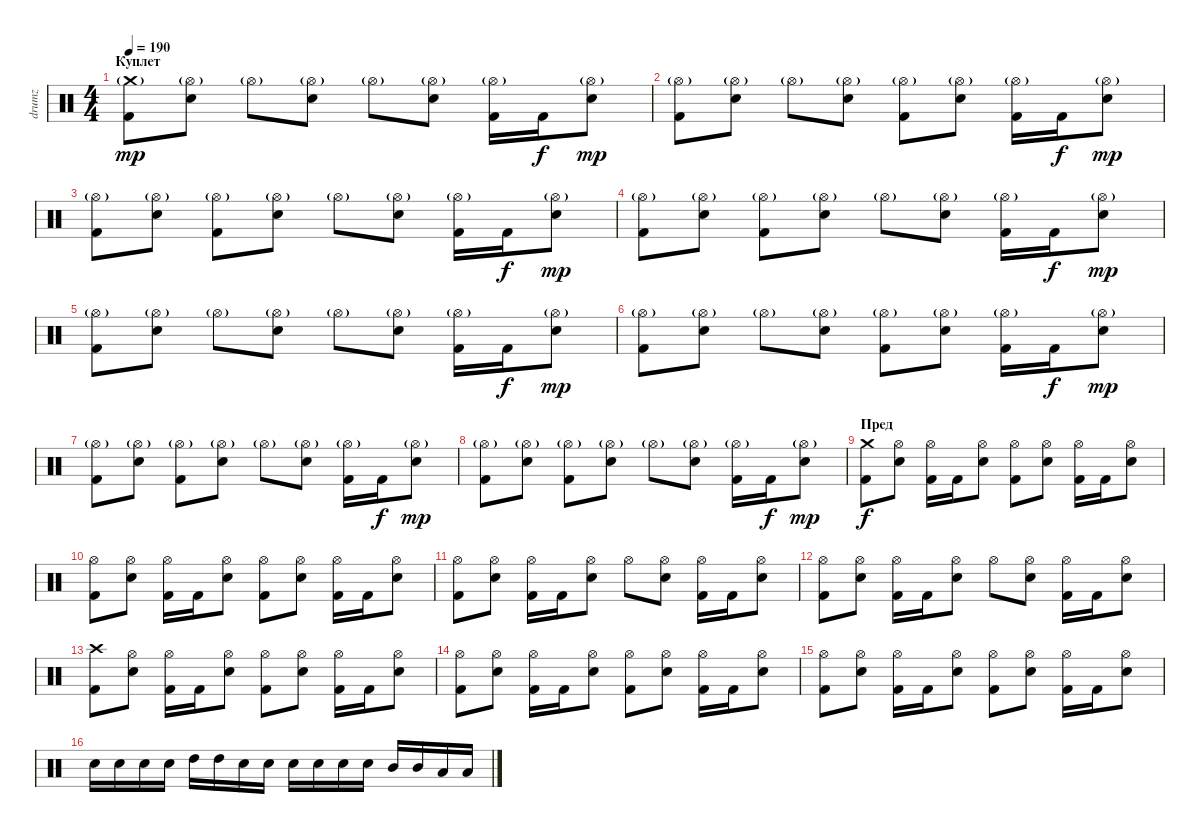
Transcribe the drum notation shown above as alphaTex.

\track ("drumz" "drumz") {instrument percussion}
\staff {score}
\articulation defaults
\ts (4 4)
\section ("" "Куплет")
\tempo 190
\clef neutral
\ks c
("Crash medium (hit)"{g} "Kick (hit) 2").8{dy mp} ("Hi-Hat (open)"{g} "Electric Snare (hit)").8 "Hi-Hat (open)"{g}.8 ("Hi-Hat (open)"{g} "Electric Snare (hit)").8 "Hi-Hat (open)"{g}.8 ("Hi-Hat (open)"{g} "Electric Snare (hit)").8 ("Hi-Hat (open)"{g} "Kick (hit) 2").16 "Kick (hit) 2".16{dy f} ("Hi-Hat (open)"{g} "Electric Snare (hit)").8{dy mp} |
("Hi-Hat (open)"{g} "Kick (hit) 2").8 ("Hi-Hat (open)"{g} "Electric Snare (hit)").8 "Hi-Hat (open)"{g}.8 ("Hi-Hat (open)"{g} "Electric Snare (hit)").8 ("Hi-Hat (open)"{g} "Kick (hit) 2").8 ("Hi-Hat (open)"{g} "Electric Snare (hit)").8 ("Hi-Hat (open)"{g} "Kick (hit) 2").16 "Kick (hit) 2".16{dy f} ("Hi-Hat (open)"{g} "Electric Snare (hit)").8{dy mp} |
("Hi-Hat (open)"{g} "Kick (hit) 2").8 ("Hi-Hat (open)"{g} "Electric Snare (hit)").8 ("Hi-Hat (open)"{g} "Kick (hit) 2").8 ("Hi-Hat (open)"{g} "Electric Snare (hit)").8 "Hi-Hat (open)"{g}.8 ("Hi-Hat (open)"{g} "Electric Snare (hit)").8 ("Hi-Hat (open)"{g} "Kick (hit) 2").16 "Kick (hit) 2".16{dy f} ("Hi-Hat (open)"{g} "Electric Snare (hit)").8{dy mp} |
("Hi-Hat (open)"{g} "Kick (hit) 2").8 ("Hi-Hat (open)"{g} "Electric Snare (hit)").8 ("Hi-Hat (open)"{g} "Kick (hit) 2").8 ("Hi-Hat (open)"{g} "Electric Snare (hit)").8 "Hi-Hat (open)"{g}.8 ("Hi-Hat (open)"{g} "Electric Snare (hit)").8 ("Hi-Hat (open)"{g} "Kick (hit) 2").16 "Kick (hit) 2".16{dy f} ("Hi-Hat (open)"{g} "Electric Snare (hit)").8{dy mp} |
("Hi-Hat (open)"{g} "Kick (hit) 2").8 ("Hi-Hat (open)"{g} "Electric Snare (hit)").8 "Hi-Hat (open)"{g}.8 ("Hi-Hat (open)"{g} "Electric Snare (hit)").8 "Hi-Hat (open)"{g}.8 ("Hi-Hat (open)"{g} "Electric Snare (hit)").8 ("Hi-Hat (open)"{g} "Kick (hit) 2").16 "Kick (hit) 2".16{dy f} ("Hi-Hat (open)"{g} "Electric Snare (hit)").8{dy mp} |
("Hi-Hat (open)"{g} "Kick (hit) 2").8 ("Hi-Hat (open)"{g} "Electric Snare (hit)").8 "Hi-Hat (open)"{g}.8 ("Hi-Hat (open)"{g} "Electric Snare (hit)").8 ("Hi-Hat (open)"{g} "Kick (hit) 2").8 ("Hi-Hat (open)"{g} "Electric Snare (hit)").8 ("Hi-Hat (open)"{g} "Kick (hit) 2").16 "Kick (hit) 2".16{dy f} ("Hi-Hat (open)"{g} "Electric Snare (hit)").8{dy mp} |
("Hi-Hat (open)"{g} "Kick (hit) 2").8 ("Hi-Hat (open)"{g} "Electric Snare (hit)").8 ("Hi-Hat (open)"{g} "Kick (hit) 2").8 ("Hi-Hat (open)"{g} "Electric Snare (hit)").8 "Hi-Hat (open)"{g}.8 ("Hi-Hat (open)"{g} "Electric Snare (hit)").8 ("Hi-Hat (open)"{g} "Kick (hit) 2").16 "Kick (hit) 2".16{dy f} ("Hi-Hat (open)"{g} "Electric Snare (hit)").8{dy mp} |
("Hi-Hat (open)"{g} "Kick (hit) 2").8 ("Hi-Hat (open)"{g} "Electric Snare (hit)").8 ("Hi-Hat (open)"{g} "Kick (hit) 2").8 ("Hi-Hat (open)"{g} "Electric Snare (hit)").8 "Hi-Hat (open)"{g}.8 ("Hi-Hat (open)"{g} "Electric Snare (hit)").8 ("Hi-Hat (open)"{g} "Kick (hit) 2").16 "Kick (hit) 2".16{dy f} ("Hi-Hat (open)"{g} "Electric Snare (hit)").8{dy mp} |
\section ("" "Пред")
("Crash medium (hit)" "Kick (hit) 2").8{dy f} ("Hi-Hat (open)" "Electric Snare (hit)").8 ("Hi-Hat (open)" "Kick (hit) 2").16 "Kick (hit) 2".16 ("Hi-Hat (open)" "Electric Snare (hit)").8 ("Hi-Hat (open)" "Kick (hit) 2").8 ("Hi-Hat (open)" "Electric Snare (hit)").8 ("Hi-Hat (open)" "Kick (hit) 2").16 "Kick (hit) 2".16 ("Hi-Hat (open)" "Electric Snare (hit)").8 |
("Hi-Hat (open)" "Kick (hit) 2").8 ("Hi-Hat (open)" "Electric Snare (hit)").8 ("Hi-Hat (open)" "Kick (hit) 2").16 "Kick (hit) 2".16 ("Hi-Hat (open)" "Electric Snare (hit)").8 ("Hi-Hat (open)" "Kick (hit) 2").8 ("Hi-Hat (open)" "Electric Snare (hit)").8 ("Hi-Hat (open)" "Kick (hit) 2").16 "Kick (hit) 2".16 ("Hi-Hat (open)" "Electric Snare (hit)").8 |
("Hi-Hat (open)" "Kick (hit) 2").8 ("Hi-Hat (open)" "Electric Snare (hit)").8 ("Hi-Hat (open)" "Kick (hit) 2").16 "Kick (hit) 2".16 ("Hi-Hat (open)" "Electric Snare (hit)").8 "Hi-Hat (open)".8 ("Hi-Hat (open)" "Electric Snare (hit)").8 ("Hi-Hat (open)" "Kick (hit) 2").16 "Kick (hit) 2".16 ("Hi-Hat (open)" "Electric Snare (hit)").8 |
("Hi-Hat (open)" "Kick (hit) 2").8 ("Hi-Hat (open)" "Electric Snare (hit)").8 ("Hi-Hat (open)" "Kick (hit) 2").16 "Kick (hit) 2".16 ("Hi-Hat (open)" "Electric Snare (hit)").8 "Hi-Hat (open)".8 ("Hi-Hat (open)" "Electric Snare (hit)").8 ("Hi-Hat (open)" "Kick (hit) 2").16 "Kick (hit) 2".16 ("Hi-Hat (open)" "Electric Snare (hit)").8 |
("Crash high (hit)" "Kick (hit) 2").8 ("Hi-Hat (open)" "Electric Snare (hit)").8 ("Hi-Hat (open)" "Kick (hit) 2").16 "Kick (hit) 2".16 ("Hi-Hat (open)" "Electric Snare (hit)").8 ("Hi-Hat (open)" "Kick (hit) 2").8 ("Hi-Hat (open)" "Electric Snare (hit)").8 ("Hi-Hat (open)" "Kick (hit) 2").16 "Kick (hit) 2".16 ("Hi-Hat (open)" "Electric Snare (hit)").8 |
("Hi-Hat (open)" "Kick (hit) 2").8 ("Hi-Hat (open)" "Electric Snare (hit)").8 ("Hi-Hat (open)" "Kick (hit) 2").16 "Kick (hit) 2".16 ("Hi-Hat (open)" "Electric Snare (hit)").8 ("Hi-Hat (open)" "Kick (hit) 2").8 ("Hi-Hat (open)" "Electric Snare (hit)").8 ("Hi-Hat (open)" "Kick (hit) 2").16 "Kick (hit) 2".16 ("Hi-Hat (open)" "Electric Snare (hit)").8 |
("Hi-Hat (open)" "Kick (hit) 2").8 ("Hi-Hat (open)" "Electric Snare (hit)").8 ("Hi-Hat (open)" "Kick (hit) 2").16 "Kick (hit) 2".16 ("Hi-Hat (open)" "Electric Snare (hit)").8 ("Hi-Hat (open)" "Kick (hit) 2").8 ("Hi-Hat (open)" "Electric Snare (hit)").8 ("Hi-Hat (open)" "Kick (hit) 2").16 "Kick (hit) 2".16 ("Hi-Hat (open)" "Electric Snare (hit)").8 |
"Electric Snare (hit)".16 "Electric Snare (hit)".16 "Electric Snare (hit)".16 "Electric Snare (hit)".16 "High Tom (hit)".16 "High Tom (hit)".16 "Electric Snare (hit)".16 "Electric Snare (hit)".16 "Electric Snare (hit)".16 "Electric Snare (hit)".16 "Electric Snare (hit)".16 "Electric Snare (hit)".16 "Mid Tom (hit)".16 "Mid Tom (hit)".16 "Low Tom (hit)".16 "Low Tom (hit)".16
